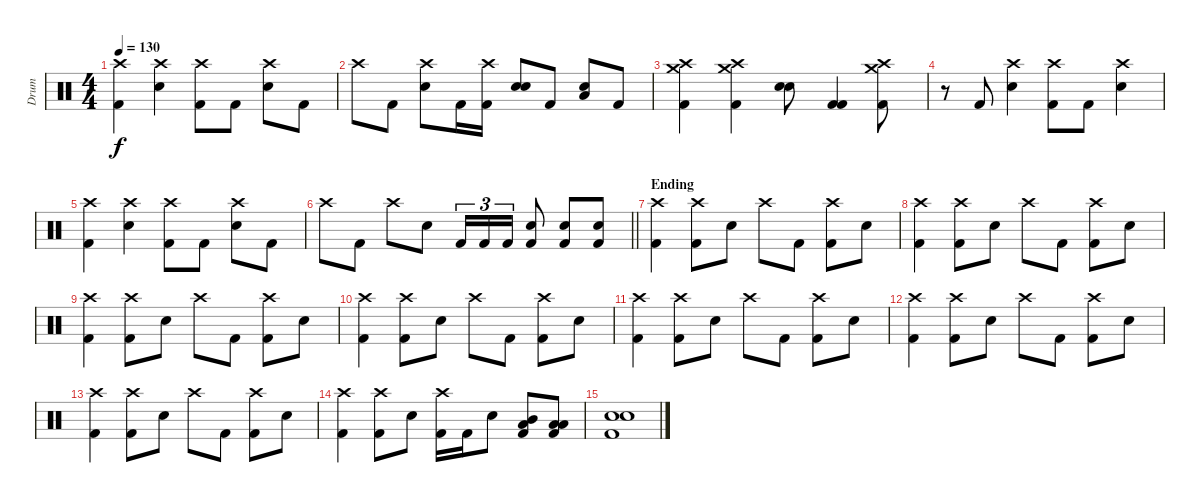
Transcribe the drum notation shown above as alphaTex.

\track ("Drum" "Drum") {instrument percussion}
\staff {score}
\articulation defaults
\ts (4 4)
\tempo 130
\clef neutral
\ks c
("Crash high (hit)" "Kick (hit) 2").4{dy f} ("Crash high (hit)" "Electric Snare (hit)").4 ("Crash high (hit)" "Kick (hit) 2").8 "Kick (hit) 2".8 ("Crash high (hit)" "Electric Snare (hit)").8 "Kick (hit) 2".8 |
"Crash high (hit)".8 "Kick (hit) 2".8 ("Crash high (hit)" "Electric Snare (hit)").8 "Kick (hit) 2".16 ("Crash high (hit)" "Kick (hit) 2").16 ("Snare (hit) 2" "Electric Snare (hit)").8 "Kick (hit) 2".8 ("Low Floor Tom (hit)" "Electric Snare (hit)").8 "Kick (hit) 2".8 |
("Crash high (hit)" "Crash medium (hit)" "Kick (hit) 2").4 ("Crash high (hit)" "Crash medium (hit)" "Kick (hit) 2").4 ("Electric Snare (hit)" "Electric Snare (hit)").8 ("Kick (hit) 2" "Kick (hit) 2").4 ("Crash high (hit)" "Crash medium (hit)" "Kick (hit) 2").8 |
r.8 "Kick (hit) 2".8 ("Crash high (hit)" "Electric Snare (hit)").4 ("Crash high (hit)" "Kick (hit) 2").8 "Kick (hit) 2".8 ("Crash high (hit)" "Electric Snare (hit)").4 |
("Crash high (hit)" "Kick (hit) 2").4 ("Crash high (hit)" "Electric Snare (hit)").4 ("Crash high (hit)" "Kick (hit) 2").8 "Kick (hit) 2".8 ("Crash high (hit)" "Electric Snare (hit)").8 "Kick (hit) 2".8 |
\barLineRight lightlight "Crash high (hit)".8 "Kick (hit) 2".8 "Crash high (hit)".8 "Electric Snare (hit)".8 "Kick (hit) 2".16{tu (3 2)} "Kick (hit) 2".16{tu (3 2)} "Kick (hit) 2".16{tu (3 2)}
("Electric Snare (hit)" "Kick (hit) 2").8 ("Electric Snare (hit)" "Kick (hit) 2").8 ("Electric Snare (hit)" "Kick (hit) 2").8 |
\section ("" "Ending")
("Crash high (hit)" "Kick (hit) 2").4 ("Crash high (hit)" "Kick (hit) 2").8 "Electric Snare (hit)".8 "Crash high (hit)".8 "Kick (hit) 2".8 ("Crash high (hit)" "Kick (hit) 2").8 "Electric Snare (hit)".8 |
("Crash high (hit)" "Kick (hit) 2").4 ("Crash high (hit)" "Kick (hit) 2").8 "Electric Snare (hit)".8 "Crash high (hit)".8 "Kick (hit) 2".8 ("Crash high (hit)" "Kick (hit) 2").8 "Electric Snare (hit)".8 |
("Crash high (hit)" "Kick (hit) 2").4 ("Crash high (hit)" "Kick (hit) 2").8 "Electric Snare (hit)".8 "Crash high (hit)".8 "Kick (hit) 2".8 ("Crash high (hit)" "Kick (hit) 2").8 "Electric Snare (hit)".8 |
("Crash high (hit)" "Kick (hit) 2").4 ("Crash high (hit)" "Kick (hit) 2").8 "Electric Snare (hit)".8 "Crash high (hit)".8 "Kick (hit) 2".8 ("Crash high (hit)" "Kick (hit) 2").8 "Electric Snare (hit)".8 |
("Crash high (hit)" "Kick (hit) 2").4 ("Crash high (hit)" "Kick (hit) 2").8 "Electric Snare (hit)".8 "Crash high (hit)".8 "Kick (hit) 2".8 ("Crash high (hit)" "Kick (hit) 2").8 "Electric Snare (hit)".8 |
("Crash high (hit)" "Kick (hit) 2").4 ("Crash high (hit)" "Kick (hit) 2").8 "Electric Snare (hit)".8 "Crash high (hit)".8 "Kick (hit) 2".8 ("Crash high (hit)" "Kick (hit) 2").8 "Electric Snare (hit)".8 |
("Crash high (hit)" "Kick (hit) 2").4 ("Crash high (hit)" "Kick (hit) 2").8 "Electric Snare (hit)".8 "Crash high (hit)".8 "Kick (hit) 2".8 ("Crash high (hit)" "Kick (hit) 2").8 "Electric Snare (hit)".8 |
("Crash high (hit)" "Kick (hit) 2").4 ("Crash high (hit)" "Kick (hit) 2").8 "Electric Snare (hit)".8 ("Crash high (hit)" "Kick (hit) 2").16 "Kick (hit) 2".16 "Electric Snare (hit)".8 ("Low Tom (hit)" "Mid Tom (hit)" "Kick (hit) 2").8 ("Low Floor Tom (hit)" "Low Tom (hit)" "Kick (hit) 2").8 |
("Electric Snare (hit)" "Electric Snare (hit)" "Kick (hit) 2").1
